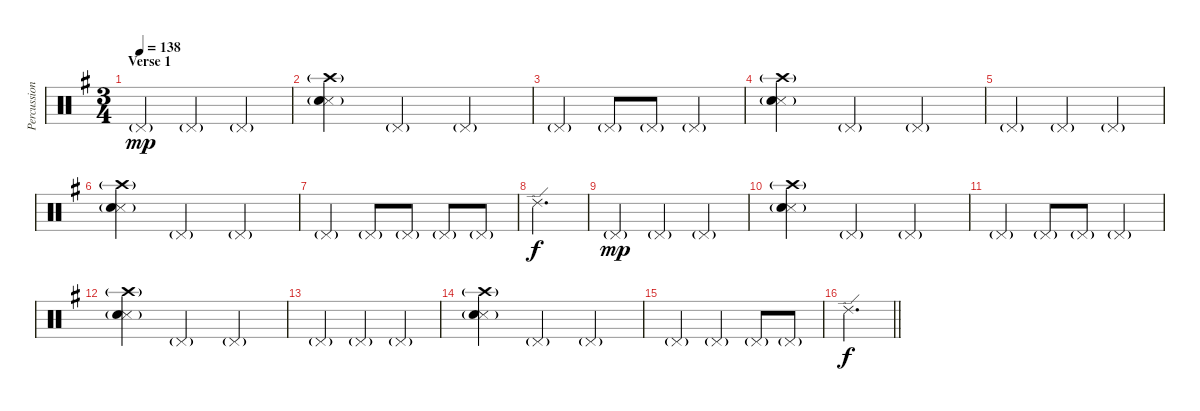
\track ("Percussion (Thomen Stauch)" "Percussion") {instrument percussion}
\staff {score}
\articulation defaults
\ts (3 4)
\section ("" "Verse 1")
\tempo 138
\clef neutral
\ks eminor "Pedal Hi-Hat (hit)"{g}.4{dy mp} "Pedal Hi-Hat (hit)"{g}.4 "Pedal Hi-Hat (hit)"{g}.4
|
("Crash high (hit)"{g} "Snare (side stick) 3" "Snare (hit) 2"{g}).4 "Pedal Hi-Hat (hit)"{g}.4 "Pedal Hi-Hat (hit)"{g}.4 |
"Pedal Hi-Hat (hit)"{g}.4 "Pedal Hi-Hat (hit)"{g}.8 "Pedal Hi-Hat (hit)"{g}.8 "Pedal Hi-Hat (hit)"{g}.4 |
("Crash high (hit)"{g} "Snare (side stick) 3" "Snare (hit) 2"{g}).4 "Pedal Hi-Hat (hit)"{g}.4 "Pedal Hi-Hat (hit)"{g}.4 |
"Pedal Hi-Hat (hit)"{g}.4 "Pedal Hi-Hat (hit)"{g}.4 "Pedal Hi-Hat (hit)"{g}.4 |
("Crash high (hit)"{g} "Snare (side stick) 3" "Snare (hit) 2"{g}).4 "Pedal Hi-Hat (hit)"{g}.4 "Pedal Hi-Hat (hit)"{g}.4 |
"Pedal Hi-Hat (hit)"{g}.4 "Pedal Hi-Hat (hit)"{g}.8 "Pedal Hi-Hat (hit)"{g}.8 "Pedal Hi-Hat (hit)"{g}.8 "Pedal Hi-Hat (hit)"{g}.8 |
"Ride (edge) 2".2{d dy f} |
"Pedal Hi-Hat (hit)"{g}.4{dy mp} "Pedal Hi-Hat (hit)"{g}.4 "Pedal Hi-Hat (hit)"{g}.4 |
("Crash high (hit)"{g} "Snare (side stick) 3" "Snare (hit) 2"{g}).4 "Pedal Hi-Hat (hit)"{g}.4 "Pedal Hi-Hat (hit)"{g}.4 |
"Pedal Hi-Hat (hit)"{g}.4 "Pedal Hi-Hat (hit)"{g}.8 "Pedal Hi-Hat (hit)"{g}.8 "Pedal Hi-Hat (hit)"{g}.4 |
("Crash high (hit)"{g} "Snare (side stick) 3" "Snare (hit) 2"{g}).4 "Pedal Hi-Hat (hit)"{g}.4 "Pedal Hi-Hat (hit)"{g}.4 |
"Pedal Hi-Hat (hit)"{g}.4 "Pedal Hi-Hat (hit)"{g}.4 "Pedal Hi-Hat (hit)"{g}.4 |
("Crash high (hit)"{g} "Snare (side stick) 3" "Snare (hit) 2"{g}).4 "Pedal Hi-Hat (hit)"{g}.4 "Pedal Hi-Hat (hit)"{g}.4 |
"Pedal Hi-Hat (hit)"{g}.4 "Pedal Hi-Hat (hit)"{g}.4 "Pedal Hi-Hat (hit)"{g}.8 "Pedal Hi-Hat (hit)"{g}.8 |
\barLineRight lightlight "Ride (edge) 2".2{d dy f}
